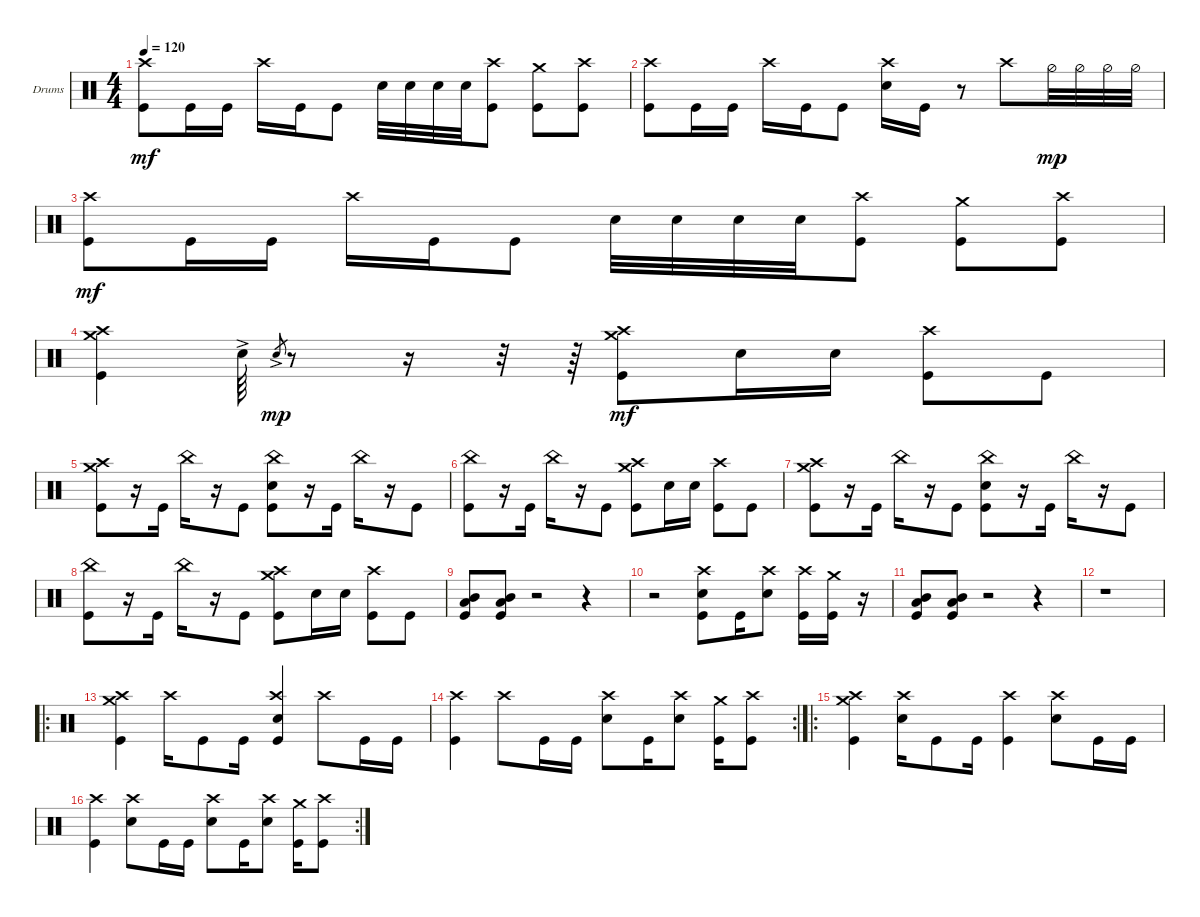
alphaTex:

\defaultSystemsLayout 4
\bracketExtendMode groupsimilarinstruments
\firstSystemTrackNameOrientation horizontal
\otherSystemsTrackNameOrientation horizontal
\track ("Drumkit" "Drums") {instrument percussion}
\staff {score}
\articulation defaults
\ts (4 4)
\tempo 120
\clef neutral
\ks c
("Kick (hit)" "Crash high (hit)").8{dy mf} "Kick (hit)".16 "Kick (hit)".16 "Crash high (hit)".16 "Kick (hit)".16 "Kick (hit)".8 "Snare (hit) 2".32 "Snare (hit) 2".32 "Snare (hit) 2".32 "Snare (hit) 2".32 ("Kick (hit)" "Crash high (hit)").8 ("Kick (hit)" "Crash medium (hit)").8 ("Kick (hit)" "Crash high (hit)").8 |
("Kick (hit)" "Crash high (hit)").8 "Kick (hit)".16 "Kick (hit)".16 "Crash high (hit)".16 "Kick (hit)".16 "Kick (hit)".8 ("Crash high (hit)" "Snare (hit) 2").16 "Kick (hit)".16 r.8 "Crash high (hit)".8 "Hi-Hat (half)".32{dy mp} "Hi-Hat (half)".32 "Hi-Hat (half)".32 "Hi-Hat (half)".32 |
("Kick (hit)" "Crash high (hit)").8{dy mf} "Kick (hit)".16 "Kick (hit)".16 "Crash high (hit)".16 "Kick (hit)".16 "Kick (hit)".8 "Snare (hit) 2".32 "Snare (hit) 2".32 "Snare (hit) 2".32 "Snare (hit) 2".32 ("Kick (hit)" "Crash high (hit)").8 ("Kick (hit)" "Crash medium (hit)").8 ("Kick (hit)" "Crash high (hit)").8 |
("Kick (hit)" "Crash high (hit)" "Crash medium (hit)").4 "Snare (hit) 2"{ac}.64 "Snare (hit) 2"{ac}.8{gr dy mp} r.8 r.16 r.32 r.64 ("Kick (hit)" "Crash medium (hit)" "Crash high (hit)").8{dy mf} "Snare (hit) 2".16 "Snare (hit) 2".16 ("Kick (hit)" "Crash high (hit)").8 "Kick (hit)".8 |
("Kick (hit)" "Crash high (hit)" "Crash medium (hit)").8 r.16 "Kick (hit)".16 "China (hit)".16 r.16 "Kick (hit)".8 ("China (hit)" "Snare (hit) 2" "Kick (hit)").8 r.16 "Kick (hit)".16 "China (hit)".16 r.16 "Kick (hit)".8 |
("China (hit)" "Kick (hit)").8 r.16 "Kick (hit)".16 "China (hit)".16 r.16 "Kick (hit)".8 ("Kick (hit)" "Crash medium (hit)" "Crash high (hit)").8 "Snare (hit) 2".16 "Snare (hit) 2".16 ("Kick (hit)" "Crash high (hit)").8 "Kick (hit)".8 |
("Kick (hit)" "Crash high (hit)" "Crash medium (hit)").8 r.16 "Kick (hit)".16 "China (hit)".16 r.16 "Kick (hit)".8 ("China (hit)" "Snare (hit) 2" "Kick (hit)").8 r.16 "Kick (hit)".16 "China (hit)".16 r.16 "Kick (hit)".8 |
("China (hit)" "Kick (hit)").8 r.16 "Kick (hit)".16 "China (hit)".16 r.16 "Kick (hit)".8 ("Kick (hit)" "Crash medium (hit)" "Crash high (hit)").8 "Snare (hit) 2".16 "Snare (hit) 2".16 ("Kick (hit)" "Crash high (hit)").8 "Kick (hit)".8 |
("Low Tom (hit)" "Mid Tom (hit)" "Kick (hit)").8 ("Kick (hit)" "Low Tom (hit)" "Mid Tom (hit)").8 r.2 r.4 |
r.2 ("Crash high (hit)" "Kick (hit)" "Snare (hit) 2").8 "Kick (hit)".16 ("Crash high (hit)" "Snare (hit) 2").8 ("Kick (hit)" "Crash high (hit)").16 ("Kick (hit)" "Crash medium (hit)").16 r.16 |
("Low Tom (hit)" "Mid Tom (hit)" "Kick (hit)").8 ("Kick (hit)" "Low Tom (hit)" "Mid Tom (hit)").8 r.2 r.4 |
r.1 |
\ro
("Crash high (hit)" "Crash medium (hit)" "Kick (hit)").4 "Crash high (hit)".16 "Kick (hit)".8 "Kick (hit)".16 ("Kick (hit)" "Crash high (hit)" "Snare (hit) 2").4 "Crash high (hit)".8 "Kick (hit)".16 "Kick (hit)".16 |
\rc 2
("Crash high (hit)" "Kick (hit)").4 "Crash high (hit)".8 "Kick (hit)".16 "Kick (hit)".16 ("Crash high (hit)" "Snare (hit) 2").8 "Kick (hit)".16 ("Snare (hit) 2" "Crash high (hit)").8 ("Kick (hit)" "Crash medium (hit)").16 ("Kick (hit)" "Crash high (hit)").8 |
\ro
("Crash high (hit)" "Crash medium (hit)" "Kick (hit)").4 ("Crash high (hit)" "Snare (hit) 2").16 "Kick (hit)".8 "Kick (hit)".16 ("Kick (hit)" "Crash high (hit)").4 ("Crash high (hit)" "Snare (hit) 2").8 "Kick (hit)".16 "Kick (hit)".16 |
\rc 2
("Crash high (hit)" "Kick (hit)").4 ("Crash high (hit)" "Snare (hit) 2").8 "Kick (hit)".16 "Kick (hit)".16 ("Crash high (hit)" "Snare (hit) 2").8 "Kick (hit)".16 ("Snare (hit) 2" "Crash high (hit)").8 ("Kick (hit)" "Crash medium (hit)").16 ("Kick (hit)" "Crash high (hit)").8
